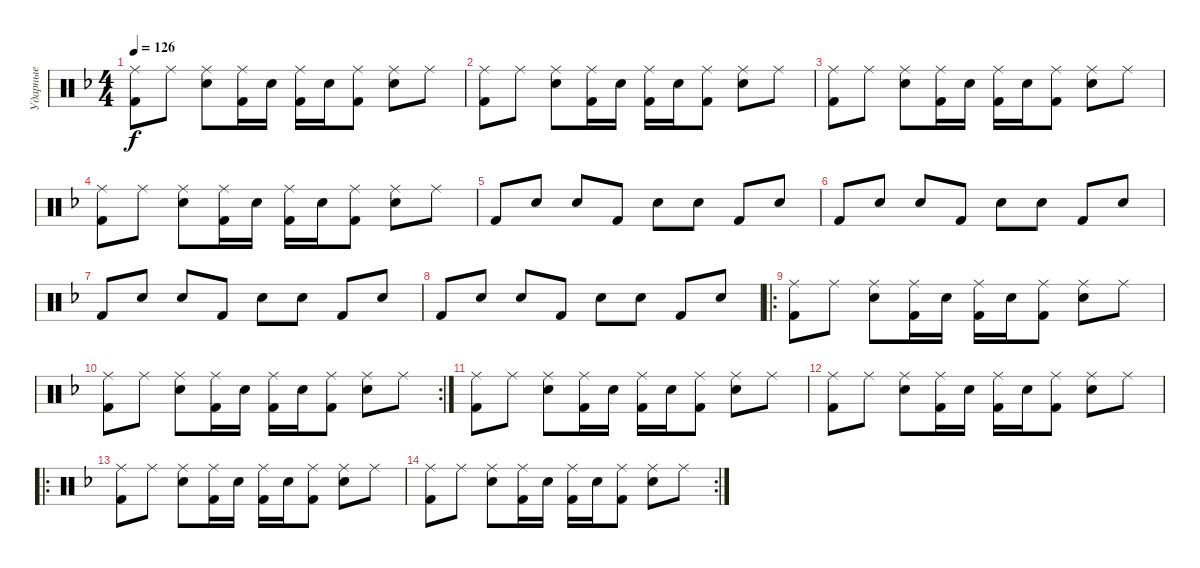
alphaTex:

\track ("Ударные" "Ударные") {instrument percussion}
\staff {score}
\articulation defaults
\ts (4 4)
\tempo 126
\clef neutral
\ks dminor
("Ride (middle)" "Kick (hit) 2").8{dy f} "Ride (middle)".8 ("Ride (middle)" "Electric Snare (hit)").8 ("Ride (middle)" "Kick (hit) 2").16 "Electric Snare (hit)".16 ("Ride (middle)" "Kick (hit) 2").16 "Electric Snare (hit)".16 ("Ride (middle)" "Kick (hit) 2").8 ("Ride (middle)" "Electric Snare (hit)").8 "Ride (middle)".8 |
("Ride (middle)" "Kick (hit) 2").8 "Ride (middle)".8 ("Ride (middle)" "Electric Snare (hit)").8 ("Ride (middle)" "Kick (hit) 2").16 "Electric Snare (hit)".16 ("Ride (middle)" "Kick (hit) 2").16 "Electric Snare (hit)".16 ("Ride (middle)" "Kick (hit) 2").8 ("Ride (middle)" "Electric Snare (hit)").8 "Ride (middle)".8 |
("Ride (middle)" "Kick (hit) 2").8 "Ride (middle)".8 ("Ride (middle)" "Electric Snare (hit)").8 ("Ride (middle)" "Kick (hit) 2").16 "Electric Snare (hit)".16 ("Ride (middle)" "Kick (hit) 2").16 "Electric Snare (hit)".16 ("Ride (middle)" "Kick (hit) 2").8 ("Ride (middle)" "Electric Snare (hit)").8 "Ride (middle)".8 |
("Ride (middle)" "Kick (hit) 2").8 "Ride (middle)".8 ("Ride (middle)" "Electric Snare (hit)").8 ("Ride (middle)" "Kick (hit) 2").16 "Electric Snare (hit)".16 ("Ride (middle)" "Kick (hit) 2").16 "Electric Snare (hit)".16 ("Ride (middle)" "Kick (hit) 2").8 ("Ride (middle)" "Electric Snare (hit)").8 "Ride (middle)".8 |
"Kick (hit) 2".8 "Electric Snare (hit)".8 "Electric Snare (hit)".8 "Kick (hit) 2".8 "Electric Snare (hit)".8 "Electric Snare (hit)".8 "Kick (hit) 2".8 "Electric Snare (hit)".8 |
"Kick (hit) 2".8 "Electric Snare (hit)".8 "Electric Snare (hit)".8 "Kick (hit) 2".8 "Electric Snare (hit)".8 "Electric Snare (hit)".8 "Kick (hit) 2".8 "Electric Snare (hit)".8 |
"Kick (hit) 2".8 "Electric Snare (hit)".8 "Electric Snare (hit)".8 "Kick (hit) 2".8 "Electric Snare (hit)".8 "Electric Snare (hit)".8 "Kick (hit) 2".8 "Electric Snare (hit)".8 |
"Kick (hit) 2".8 "Electric Snare (hit)".8 "Electric Snare (hit)".8 "Kick (hit) 2".8 "Electric Snare (hit)".8 "Electric Snare (hit)".8 "Kick (hit) 2".8 "Electric Snare (hit)".8 |
\ro
("Ride (middle)" "Kick (hit) 2").8 "Ride (middle)".8 ("Ride (middle)" "Electric Snare (hit)").8 ("Ride (middle)" "Kick (hit) 2").16 "Electric Snare (hit)".16 ("Ride (middle)" "Kick (hit) 2").16 "Electric Snare (hit)".16 ("Ride (middle)" "Kick (hit) 2").8 ("Ride (middle)" "Electric Snare (hit)").8 "Ride (middle)".8 |
\rc 2
("Ride (middle)" "Kick (hit) 2").8 "Ride (middle)".8 ("Ride (middle)" "Electric Snare (hit)").8 ("Ride (middle)" "Kick (hit) 2").16 "Electric Snare (hit)".16 ("Ride (middle)" "Kick (hit) 2").16 "Electric Snare (hit)".16 ("Ride (middle)" "Kick (hit) 2").8 ("Ride (middle)" "Electric Snare (hit)").8 "Ride (middle)".8 |
("Ride (middle)" "Kick (hit) 2").8 "Ride (middle)".8 ("Ride (middle)" "Electric Snare (hit)").8 ("Ride (middle)" "Kick (hit) 2").16 "Electric Snare (hit)".16 ("Ride (middle)" "Kick (hit) 2").16 "Electric Snare (hit)".16 ("Ride (middle)" "Kick (hit) 2").8 ("Ride (middle)" "Electric Snare (hit)").8 "Ride (middle)".8 |
("Ride (middle)" "Kick (hit) 2").8 "Ride (middle)".8 ("Ride (middle)" "Electric Snare (hit)").8 ("Ride (middle)" "Kick (hit) 2").16 "Electric Snare (hit)".16 ("Ride (middle)" "Kick (hit) 2").16 "Electric Snare (hit)".16 ("Ride (middle)" "Kick (hit) 2").8 ("Ride (middle)" "Electric Snare (hit)").8 "Ride (middle)".8 |
\ro
("Ride (middle)" "Kick (hit) 2").8 "Ride (middle)".8 ("Ride (middle)" "Electric Snare (hit)").8 ("Ride (middle)" "Kick (hit) 2").16 "Electric Snare (hit)".16 ("Ride (middle)" "Kick (hit) 2").16 "Electric Snare (hit)".16 ("Ride (middle)" "Kick (hit) 2").8 ("Ride (middle)" "Electric Snare (hit)").8 "Ride (middle)".8 |
\rc 2
("Ride (middle)" "Kick (hit) 2").8 "Ride (middle)".8 ("Ride (middle)" "Electric Snare (hit)").8 ("Ride (middle)" "Kick (hit) 2").16 "Electric Snare (hit)".16 ("Ride (middle)" "Kick (hit) 2").16 "Electric Snare (hit)".16 ("Ride (middle)" "Kick (hit) 2").8 ("Ride (middle)" "Electric Snare (hit)").8 "Ride (middle)".8
